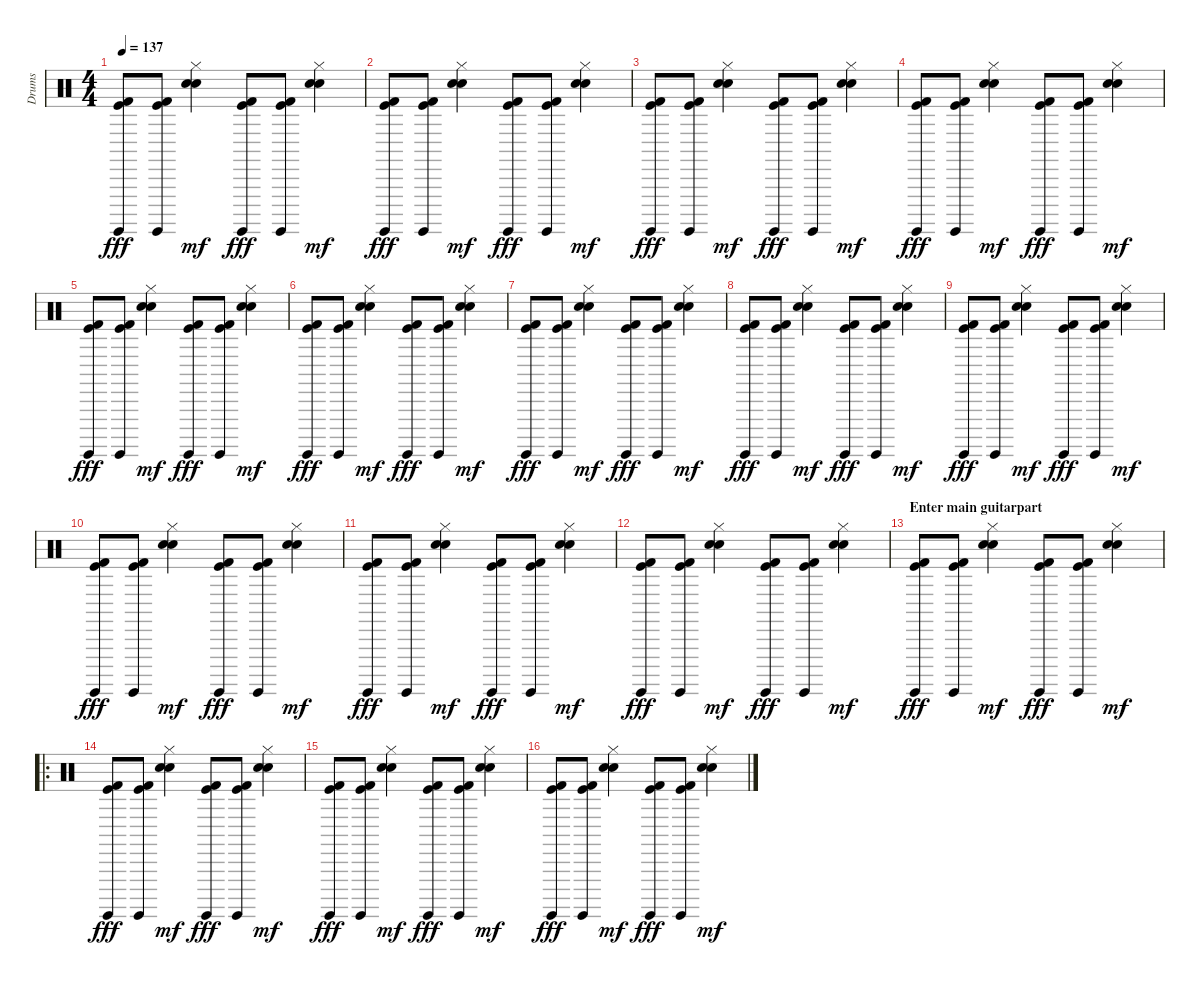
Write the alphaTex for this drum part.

\track ("Drums" "Drums") {instrument percussion}
\staff {score}
\articulation defaults
\ts (4 4)
\tempo 137
\clef neutral
\ks c
("Surdo (hit)" "Kick (hit) 2" "Kick (hit)").8{dy fff} ("Surdo (hit)" "Kick (hit) 2" "Kick (hit)").8 ("Hi-Hat (closed)" "Hand Clap (hit)" "Snare (hit) 2").4{dy mf} ("Surdo (hit)" "Kick (hit) 2" "Kick (hit)").8{dy fff} ("Surdo (hit)" "Kick (hit) 2" "Kick (hit)").8 ("Hi-Hat (closed)" "Hand Clap (hit)" "Snare (hit) 2").4{dy mf} |
("Surdo (hit)" "Kick (hit) 2" "Kick (hit)").8{dy fff} ("Surdo (hit)" "Kick (hit) 2" "Kick (hit)").8 ("Hi-Hat (closed)" "Hand Clap (hit)" "Snare (hit) 2").4{dy mf} ("Surdo (hit)" "Kick (hit) 2" "Kick (hit)").8{dy fff} ("Surdo (hit)" "Kick (hit) 2" "Kick (hit)").8 ("Hi-Hat (closed)" "Hand Clap (hit)" "Snare (hit) 2").4{dy mf} |
("Surdo (hit)" "Kick (hit) 2" "Kick (hit)").8{dy fff} ("Surdo (hit)" "Kick (hit) 2" "Kick (hit)").8 ("Hi-Hat (closed)" "Hand Clap (hit)" "Snare (hit) 2").4{dy mf} ("Surdo (hit)" "Kick (hit) 2" "Kick (hit)").8{dy fff} ("Surdo (hit)" "Kick (hit) 2" "Kick (hit)").8 ("Hi-Hat (closed)" "Hand Clap (hit)" "Snare (hit) 2").4{dy mf} |
("Surdo (hit)" "Kick (hit) 2" "Kick (hit)").8{dy fff} ("Surdo (hit)" "Kick (hit) 2" "Kick (hit)").8 ("Hi-Hat (closed)" "Hand Clap (hit)" "Snare (hit) 2").4{dy mf} ("Surdo (hit)" "Kick (hit) 2" "Kick (hit)").8{dy fff} ("Surdo (hit)" "Kick (hit) 2" "Kick (hit)").8 ("Hi-Hat (closed)" "Hand Clap (hit)" "Snare (hit) 2").4{dy mf} |
("Surdo (hit)" "Kick (hit) 2" "Kick (hit)").8{dy fff} ("Surdo (hit)" "Kick (hit) 2" "Kick (hit)").8 ("Hi-Hat (closed)" "Hand Clap (hit)" "Snare (hit) 2").4{dy mf} ("Surdo (hit)" "Kick (hit) 2" "Kick (hit)").8{dy fff} ("Surdo (hit)" "Kick (hit) 2" "Kick (hit)").8 ("Hi-Hat (closed)" "Hand Clap (hit)" "Snare (hit) 2").4{dy mf} |
("Surdo (hit)" "Kick (hit) 2" "Kick (hit)").8{dy fff} ("Surdo (hit)" "Kick (hit) 2" "Kick (hit)").8 ("Hi-Hat (closed)" "Hand Clap (hit)" "Snare (hit) 2").4{dy mf} ("Surdo (hit)" "Kick (hit) 2" "Kick (hit)").8{dy fff} ("Surdo (hit)" "Kick (hit) 2" "Kick (hit)").8 ("Hi-Hat (closed)" "Hand Clap (hit)" "Snare (hit) 2").4{dy mf} |
("Surdo (hit)" "Kick (hit) 2" "Kick (hit)").8{dy fff} ("Surdo (hit)" "Kick (hit) 2" "Kick (hit)").8 ("Hi-Hat (closed)" "Hand Clap (hit)" "Snare (hit) 2").4{dy mf} ("Surdo (hit)" "Kick (hit) 2" "Kick (hit)").8{dy fff} ("Surdo (hit)" "Kick (hit) 2" "Kick (hit)").8 ("Hi-Hat (closed)" "Hand Clap (hit)" "Snare (hit) 2").4{dy mf} |
("Surdo (hit)" "Kick (hit) 2" "Kick (hit)").8{dy fff} ("Surdo (hit)" "Kick (hit) 2" "Kick (hit)").8 ("Hi-Hat (closed)" "Hand Clap (hit)" "Snare (hit) 2").4{dy mf} ("Surdo (hit)" "Kick (hit) 2" "Kick (hit)").8{dy fff} ("Surdo (hit)" "Kick (hit) 2" "Kick (hit)").8 ("Hi-Hat (closed)" "Hand Clap (hit)" "Snare (hit) 2").4{dy mf} |
("Surdo (hit)" "Kick (hit) 2" "Kick (hit)").8{dy fff} ("Surdo (hit)" "Kick (hit) 2" "Kick (hit)").8 ("Hi-Hat (closed)" "Hand Clap (hit)" "Snare (hit) 2").4{dy mf} ("Surdo (hit)" "Kick (hit) 2" "Kick (hit)").8{dy fff} ("Surdo (hit)" "Kick (hit) 2" "Kick (hit)").8 ("Hi-Hat (closed)" "Hand Clap (hit)" "Snare (hit) 2").4{dy mf} |
("Surdo (hit)" "Kick (hit) 2" "Kick (hit)").8{dy fff} ("Surdo (hit)" "Kick (hit) 2" "Kick (hit)").8 ("Hi-Hat (closed)" "Hand Clap (hit)" "Snare (hit) 2").4{dy mf} ("Surdo (hit)" "Kick (hit) 2" "Kick (hit)").8{dy fff} ("Surdo (hit)" "Kick (hit) 2" "Kick (hit)").8 ("Hi-Hat (closed)" "Hand Clap (hit)" "Snare (hit) 2").4{dy mf} |
("Surdo (hit)" "Kick (hit) 2" "Kick (hit)").8{dy fff} ("Surdo (hit)" "Kick (hit) 2" "Kick (hit)").8 ("Hi-Hat (closed)" "Hand Clap (hit)" "Snare (hit) 2").4{dy mf} ("Surdo (hit)" "Kick (hit) 2" "Kick (hit)").8{dy fff} ("Surdo (hit)" "Kick (hit) 2" "Kick (hit)").8 ("Hi-Hat (closed)" "Hand Clap (hit)" "Snare (hit) 2").4{dy mf} |
("Surdo (hit)" "Kick (hit) 2" "Kick (hit)").8{dy fff} ("Surdo (hit)" "Kick (hit) 2" "Kick (hit)").8 ("Hi-Hat (closed)" "Hand Clap (hit)" "Snare (hit) 2").4{dy mf} ("Surdo (hit)" "Kick (hit) 2" "Kick (hit)").8{dy fff} ("Surdo (hit)" "Kick (hit) 2" "Kick (hit)").8 ("Hi-Hat (closed)" "Hand Clap (hit)" "Snare (hit) 2").4{dy mf} |
\section ("" "Enter main guitarpart")
("Surdo (hit)" "Kick (hit) 2" "Kick (hit)").8{dy fff} ("Surdo (hit)" "Kick (hit) 2" "Kick (hit)").8 ("Hi-Hat (closed)" "Hand Clap (hit)" "Snare (hit) 2").4{dy mf} ("Surdo (hit)" "Kick (hit) 2" "Kick (hit)").8{dy fff} ("Surdo (hit)" "Kick (hit) 2" "Kick (hit)").8 ("Hi-Hat (closed)" "Hand Clap (hit)" "Snare (hit) 2").4{dy mf} |
\ro
("Surdo (hit)" "Kick (hit) 2" "Kick (hit)").8{dy fff} ("Surdo (hit)" "Kick (hit) 2" "Kick (hit)").8 ("Hi-Hat (closed)" "Hand Clap (hit)" "Snare (hit) 2").4{dy mf} ("Surdo (hit)" "Kick (hit) 2" "Kick (hit)").8{dy fff} ("Surdo (hit)" "Kick (hit) 2" "Kick (hit)").8 ("Hi-Hat (closed)" "Hand Clap (hit)" "Snare (hit) 2").4{dy mf} |
("Surdo (hit)" "Kick (hit) 2" "Kick (hit)").8{dy fff} ("Surdo (hit)" "Kick (hit) 2" "Kick (hit)").8 ("Hi-Hat (closed)" "Hand Clap (hit)" "Snare (hit) 2").4{dy mf} ("Surdo (hit)" "Kick (hit) 2" "Kick (hit)").8{dy fff} ("Surdo (hit)" "Kick (hit) 2" "Kick (hit)").8 ("Hi-Hat (closed)" "Hand Clap (hit)" "Snare (hit) 2").4{dy mf} |
("Surdo (hit)" "Kick (hit) 2" "Kick (hit)").8{dy fff} ("Surdo (hit)" "Kick (hit) 2" "Kick (hit)").8 ("Hi-Hat (closed)" "Hand Clap (hit)" "Snare (hit) 2").4{dy mf} ("Surdo (hit)" "Kick (hit) 2" "Kick (hit)").8{dy fff} ("Surdo (hit)" "Kick (hit) 2" "Kick (hit)").8 ("Hi-Hat (closed)" "Hand Clap (hit)" "Snare (hit) 2").4{dy mf}
